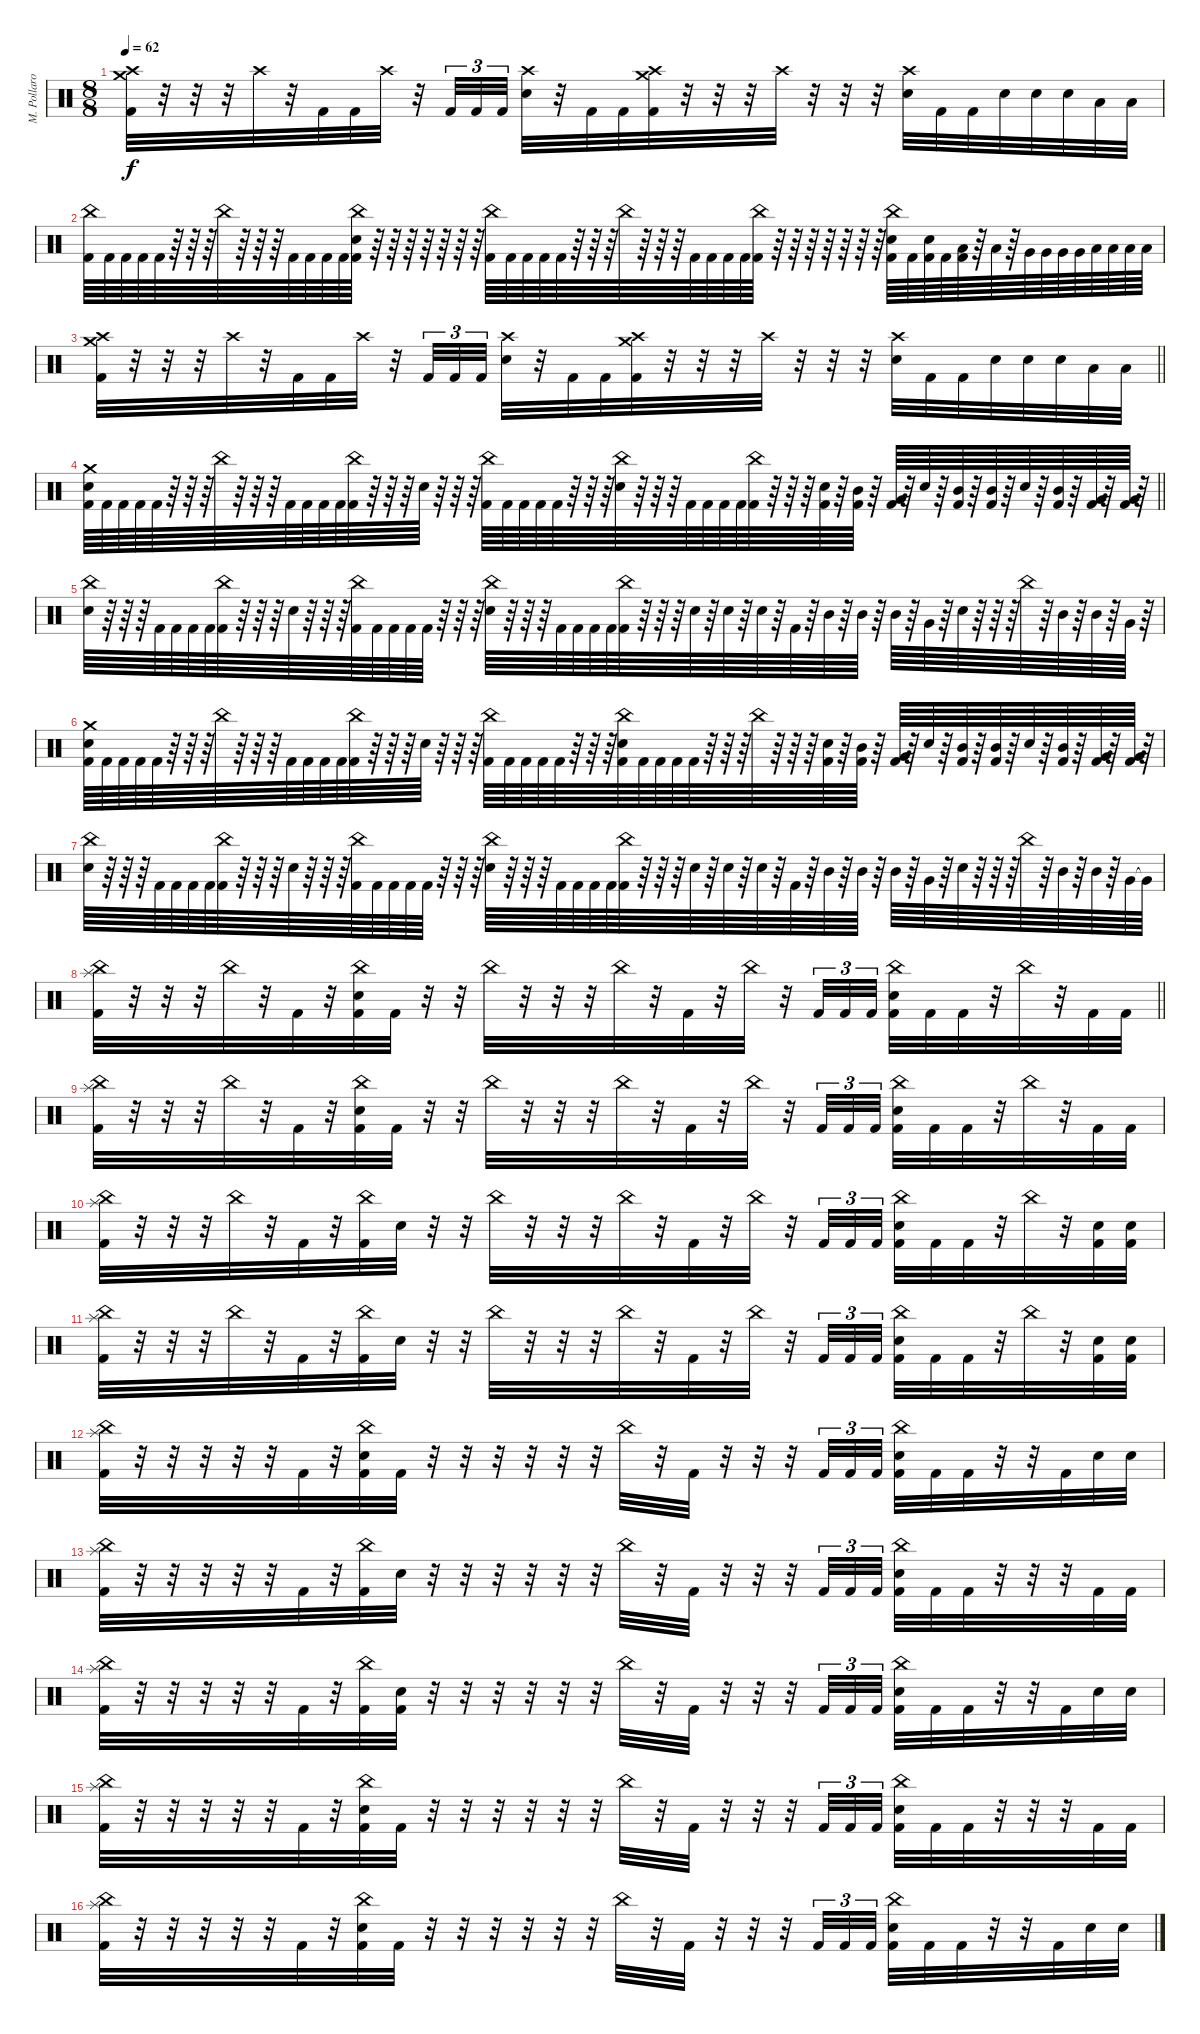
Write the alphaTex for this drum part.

\track ("M. Pollaro" "M. Pollaro") {instrument percussion}
\staff {score}
\articulation defaults
\ts (8 8)
\tempo 62
\clef neutral
\ks aminor
("Crash medium (hit)" "Crash high (hit)" "Kick (hit) 2").32{dy f} r.32 r.32 r.32 "Crash high (hit)".32 r.32 "Kick (hit) 2".32 "Kick (hit) 2".32 "Crash high (hit)".32 r.32 "Kick (hit) 2".32{tu (3 2)} "Kick (hit) 2".32{tu (3 2)} "Kick (hit) 2".32{tu (3 2)} ("Crash high (hit)" "Snare (hit) 2").32 r.32 "Kick (hit) 2".32 "Kick (hit) 2".32 ("Crash high (hit)" "Crash medium (hit)" "Kick (hit) 2").32 r.32 r.32 r.32 "Crash high (hit)".32 r.32 r.32 r.32 ("Crash high (hit)" "Snare (hit) 2").32 "Kick (hit) 2".32 "Kick (hit) 2".32 "Snare (hit) 2".32 "Snare (hit) 2".32 "Snare (hit) 2".32 "Low Tom (hit)".32 "Low Tom (hit)".32 |
("China (hit)" "Kick (hit) 2").64 "Kick (hit) 2".64 "Kick (hit) 2".64 "Kick (hit) 2".64 "Kick (hit) 2".64 r.64 r.64 r.64 "China (hit)".64 r.64 r.64 r.64 "Kick (hit) 2".64 "Kick (hit) 2".64 "Kick (hit) 2".64 "Kick (hit) 2".64 ("China (hit)" "Snare (hit) 2" "Kick (hit) 2").64 r.64 r.64 r.64 r.64 r.64 r.64 r.64 ("China (hit)" "Kick (hit) 2").64 "Kick (hit) 2".64 "Kick (hit) 2".64 "Kick (hit) 2".64 "Kick (hit) 2".64 r.64 r.64 r.64 "China (hit)".64 r.64 r.64 r.64 "Kick (hit) 2".64 "Kick (hit) 2".64 "Kick (hit) 2".64 "Kick (hit) 2".64 ("China (hit)" "Kick (hit) 2").64 r.64 r.64 r.64 r.64 r.64 r.64 r.64 ("China (hit)" "Snare (hit) 2" "Kick (hit) 2").64 "Kick (hit) 2".64 ("Snare (hit) 2" "Kick (hit) 2").64 "Kick (hit) 2".64 ("Low Tom (hit)" "Kick (hit) 2").64 r.64 "Low Tom (hit)".64 r.64 "Very Low Tom (hit)".64 "Very Low Tom (hit)".64 "Very Low Tom (hit)".64 "Very Low Tom (hit)".64 "Low Floor Tom (hit)".64 "Low Floor Tom (hit)".64 "Low Floor Tom (hit)".64 "Low Floor Tom (hit)".64 |
\barLineRight lightlight
("Crash medium (hit)" "Crash high (hit)" "Kick (hit) 2").32 r.32 r.32 r.32 "Crash high (hit)".32 r.32 "Kick (hit) 2".32 "Kick (hit) 2".32 "Crash high (hit)".32 r.32 "Kick (hit) 2".32{tu (3 2)} "Kick (hit) 2".32{tu (3 2)} "Kick (hit) 2".32{tu (3 2)} ("Crash high (hit)" "Snare (hit) 2").32 r.32 "Kick (hit) 2".32 "Kick (hit) 2".32 ("Crash high (hit)" "Crash medium (hit)" "Kick (hit) 2").32 r.32 r.32 r.32 "Crash high (hit)".32 r.32 r.32 r.32 ("Crash high (hit)" "Snare (hit) 2").32 "Kick (hit) 2".32 "Kick (hit) 2".32 "Snare (hit) 2".32 "Snare (hit) 2".32 "Snare (hit) 2".32 "Low Tom (hit)".32 "Low Tom (hit)".32 |
\barLineRight lightlight
("Crash medium (hit)" "Snare (hit) 2" "Kick (hit) 2").64 "Kick (hit) 2".64 "Kick (hit) 2".64 "Kick (hit) 2".64 "Kick (hit) 2".64 r.64 r.64 r.64 "China (hit)".64 r.64 r.64 r.64 "Kick (hit) 2".64 "Kick (hit) 2".64 "Kick (hit) 2".64 "Kick (hit) 2".64 ("China (hit)" "Kick (hit) 2").64 r.64 r.64 r.64 "Snare (hit) 2".64 r.64 r.64 r.64 ("China (hit)" "Kick (hit) 2").64 "Kick (hit) 2".64 "Kick (hit) 2".64 "Kick (hit) 2".64 "Kick (hit) 2".64 r.64 r.64 r.64 ("China (hit)" "Snare (hit) 2").64 r.64 r.64 r.64 "Kick (hit) 2".64 "Kick (hit) 2".64 "Kick (hit) 2".64 "Kick (hit) 2".64 ("China (hit)" "Kick (hit) 2").64 r.64 r.64 r.64 ("Snare (hit) 2" "Kick (hit) 2").64 r.64 ("Mid Tom (hit)" "Kick (hit) 2").64 r.64 ("Very Low Tom (hit)" "Kick (hit) 2").64 r.64 "Snare (hit) 2".64 r.64 ("Mid Tom (hit)" "Kick (hit) 2").64 r.64 ("Mid Tom (hit)" "Kick (hit) 2").64 r.64 "Snare (hit) 2".64 r.64 ("Mid Tom (hit)" "Kick (hit) 2").64 r.64 ("Very Low Tom (hit)" "Kick (hit) 2").64 r.64 ("Very Low Tom (hit)" "Kick (hit) 2").64 r.64 |
("China (hit)" "Snare (hit) 2").64 r.64 r.64 r.64 "Kick (hit) 2".64 "Kick (hit) 2".64 "Kick (hit) 2".64 "Kick (hit) 2".64 ("China (hit)" "Kick (hit) 2").64 r.64 r.64 r.64 "Snare (hit) 2".64 r.64 r.64 r.64 ("China (hit)" "Kick (hit) 2").64 "Kick (hit) 2".64 "Kick (hit) 2".64 "Kick (hit) 2".64 "Kick (hit) 2".64 r.64 r.64 r.64 ("China (hit)" "Snare (hit) 2").64 r.64 r.64 r.64 "Kick (hit) 2".64 "Kick (hit) 2".64 "Kick (hit) 2".64 "Kick (hit) 2".64 ("China (hit)" "Kick (hit) 2").64 r.64 r.64 r.64 "Snare (hit) 2".64 r.64 "Snare (hit) 2".64 r.64 "Snare (hit) 2".64 r.64 "Kick (hit) 2".64 r.64 "Mid Tom (hit)".64 r.64 "Mid Tom (hit)".64 r.64 "Mid Tom (hit)".64 r.64 "Very Low Tom (hit)".64 r.64 "Snare (hit) 2".64 r.64 r.64 r.64 "China (hit)".64 r.64 "Mid Tom (hit)".64 r.64 "Mid Tom (hit)".64 r.64 "Very Low Tom (hit)".64 r.64 |
("Crash medium (hit)" "Snare (hit) 2" "Kick (hit) 2").64 "Kick (hit) 2".64 "Kick (hit) 2".64 "Kick (hit) 2".64 "Kick (hit) 2".64 r.64 r.64 r.64 "China (hit)".64 r.64 r.64 r.64 "Kick (hit) 2".64 "Kick (hit) 2".64 "Kick (hit) 2".64 "Kick (hit) 2".64 ("China (hit)" "Kick (hit) 2").64 r.64 r.64 r.64 "Snare (hit) 2".64 r.64 r.64 r.64 ("China (hit)" "Kick (hit) 2").64 "Kick (hit) 2".64 "Kick (hit) 2".64 "Kick (hit) 2".64 "Kick (hit) 2".64 r.64 r.64 r.64 ("China (hit)" "Snare (hit) 2" "Kick (hit) 2").64 "Kick (hit) 2".64 "Kick (hit) 2".64 "Kick (hit) 2".64 "Kick (hit) 2".64 r.64 r.64 r.64 "China (hit)".64 r.64 r.64 r.64 ("Snare (hit) 2" "Kick (hit) 2").64 r.64 ("Mid Tom (hit)" "Kick (hit) 2").64 r.64 ("Very Low Tom (hit)" "Kick (hit) 2").64 r.64 "Snare (hit) 2".64 r.64 ("Mid Tom (hit)" "Kick (hit) 2").64 r.64 ("Mid Tom (hit)" "Kick (hit) 2").64 r.64 "Snare (hit) 2".64 r.64 ("Mid Tom (hit)" "Kick (hit) 2").64 r.64 ("Very Low Tom (hit)" "Kick (hit) 2").64 r.64 ("Very Low Tom (hit)" "Kick (hit) 2").64 r.64 |
("China (hit)" "Snare (hit) 2").64 r.64 r.64 r.64 "Kick (hit) 2".64 "Kick (hit) 2".64 "Kick (hit) 2".64 "Kick (hit) 2".64 ("China (hit)" "Kick (hit) 2").64 r.64 r.64 r.64 "Snare (hit) 2".64 r.64 r.64 r.64 ("China (hit)" "Kick (hit) 2").64 "Kick (hit) 2".64 "Kick (hit) 2".64 "Kick (hit) 2".64 "Kick (hit) 2".64 r.64 r.64 r.64 ("China (hit)" "Snare (hit) 2").64 r.64 r.64 r.64 "Kick (hit) 2".64 "Kick (hit) 2".64 "Kick (hit) 2".64 "Kick (hit) 2".64 ("China (hit)" "Kick (hit) 2").64 r.64 r.64 r.64 "Snare (hit) 2".64 r.64 "Snare (hit) 2".64 r.64 "Snare (hit) 2".64 r.64 "Kick (hit) 2".64 r.64 "Mid Tom (hit)".64 r.64 "Mid Tom (hit)".64 r.64 "Mid Tom (hit)".64 r.64 "Very Low Tom (hit)".64 r.64 "Snare (hit) 2".64 r.64 r.64 r.64 "China (hit)".64 r.64 "Mid Tom (hit)".64 r.64 "Mid Tom (hit)".64 r.64 "Very Low Tom (hit)".64 "Very Low Tom (hit)"{t}.64 |
\barLineRight lightlight
("Splash (hit)" "China (hit)" "Kick (hit) 2").32 r.32 r.32 r.32 "China (hit)".32 r.32 "Kick (hit) 2".32 r.32 ("China (hit)" "Snare (hit) 2" "Kick (hit) 2").32 "Kick (hit) 2".32 r.32 r.32 "China (hit)".32 r.32 r.32 r.32 "China (hit)".32 r.32 "Kick (hit) 2".32 r.32 "China (hit)".32 r.32 "Kick (hit) 2".32{tu (3 2)} "Kick (hit) 2".32{tu (3 2)} "Kick (hit) 2".32{tu (3 2)} ("China (hit)" "Snare (hit) 2" "Kick (hit) 2").32 "Kick (hit) 2".32 "Kick (hit) 2".32 r.32 "China (hit)".32 r.32 "Kick (hit) 2".32 "Kick (hit) 2".32 |
("Splash (hit)" "China (hit)" "Kick (hit) 2").32 r.32 r.32 r.32 "China (hit)".32 r.32 "Kick (hit) 2".32 r.32 ("China (hit)" "Snare (hit) 2" "Kick (hit) 2").32 "Kick (hit) 2".32 r.32 r.32 "China (hit)".32 r.32 r.32 r.32 "China (hit)".32 r.32 "Kick (hit) 2".32 r.32 "China (hit)".32 r.32 "Kick (hit) 2".32{tu (3 2)} "Kick (hit) 2".32{tu (3 2)} "Kick (hit) 2".32{tu (3 2)} ("China (hit)" "Snare (hit) 2" "Kick (hit) 2").32 "Kick (hit) 2".32 "Kick (hit) 2".32 r.32 "China (hit)".32 r.32 "Kick (hit) 2".32 "Kick (hit) 2".32 |
("Splash (hit)" "China (hit)" "Kick (hit) 2").32 r.32 r.32 r.32 "China (hit)".32 r.32 "Kick (hit) 2".32 r.32 ("China (hit)" "Kick (hit) 2").32 "Snare (hit) 2".32 r.32 r.32 "China (hit)".32 r.32 r.32 r.32 "China (hit)".32 r.32 "Kick (hit) 2".32 r.32 "China (hit)".32 r.32 "Kick (hit) 2".32{tu (3 2)} "Kick (hit) 2".32{tu (3 2)} "Kick (hit) 2".32{tu (3 2)} ("China (hit)" "Snare (hit) 2" "Kick (hit) 2").32 "Kick (hit) 2".32 "Kick (hit) 2".32 r.32 "China (hit)".32 r.32 ("Snare (hit) 2" "Kick (hit) 2").32 ("Snare (hit) 2" "Kick (hit) 2").32 |
("Splash (hit)" "China (hit)" "Kick (hit) 2").32 r.32 r.32 r.32 "China (hit)".32 r.32 "Kick (hit) 2".32 r.32 ("China (hit)" "Kick (hit) 2").32 "Snare (hit) 2".32 r.32 r.32 "China (hit)".32 r.32 r.32 r.32 "China (hit)".32 r.32 "Kick (hit) 2".32 r.32 "China (hit)".32 r.32 "Kick (hit) 2".32{tu (3 2)} "Kick (hit) 2".32{tu (3 2)} "Kick (hit) 2".32{tu (3 2)} ("China (hit)" "Snare (hit) 2" "Kick (hit) 2").32 "Kick (hit) 2".32 "Kick (hit) 2".32 r.32 "China (hit)".32 r.32 ("Snare (hit) 2" "Kick (hit) 2").32 ("Snare (hit) 2" "Kick (hit) 2").32 |
("Splash (hit)" "China (hit)" "Kick (hit) 2").32 r.32 r.32 r.32 r.32 r.32 "Kick (hit) 2".32 r.32 ("China (hit)" "Snare (hit) 2" "Kick (hit) 2").32 "Kick (hit) 2".32 r.32 r.32 r.32 r.32 r.32 r.32 "China (hit)".32 r.32 "Kick (hit) 2".32 r.32 r.32 r.32 "Kick (hit) 2".32{tu (3 2)} "Kick (hit) 2".32{tu (3 2)} "Kick (hit) 2".32{tu (3 2)} ("China (hit)" "Snare (hit) 2" "Kick (hit) 2").32 "Kick (hit) 2".32 "Kick (hit) 2".32 r.32 r.32 "Kick (hit) 2".32 "Snare (hit) 2".32 "Snare (hit) 2".32 |
("Splash (hit)" "China (hit)" "Kick (hit) 2").32 r.32 r.32 r.32 r.32 r.32 "Kick (hit) 2".32 r.32 ("China (hit)" "Kick (hit) 2").32 "Snare (hit) 2".32 r.32 r.32 r.32 r.32 r.32 r.32 "China (hit)".32 r.32 "Kick (hit) 2".32 r.32 r.32 r.32 "Kick (hit) 2".32{tu (3 2)} "Kick (hit) 2".32{tu (3 2)} "Kick (hit) 2".32{tu (3 2)} ("China (hit)" "Snare (hit) 2" "Kick (hit) 2").32 "Kick (hit) 2".32 "Kick (hit) 2".32 r.32 r.32 r.32 "Kick (hit) 2".32 "Kick (hit) 2".32 |
("Splash (hit)" "China (hit)" "Kick (hit) 2").32 r.32 r.32 r.32 r.32 r.32 "Kick (hit) 2".32 r.32 ("China (hit)" "Kick (hit) 2").32 ("Snare (hit) 2" "Kick (hit) 2").32 r.32 r.32 r.32 r.32 r.32 r.32 "China (hit)".32 r.32 "Kick (hit) 2".32 r.32 r.32 r.32 "Kick (hit) 2".32{tu (3 2)} "Kick (hit) 2".32{tu (3 2)} "Kick (hit) 2".32{tu (3 2)} ("China (hit)" "Snare (hit) 2" "Kick (hit) 2").32 "Kick (hit) 2".32 "Kick (hit) 2".32 r.32 r.32 "Kick (hit) 2".32 "Snare (hit) 2".32 "Snare (hit) 2".32 |
("Splash (hit)" "China (hit)" "Kick (hit) 2").32 r.32 r.32 r.32 r.32 r.32 "Kick (hit) 2".32 r.32 ("China (hit)" "Snare (hit) 2" "Kick (hit) 2").32 "Kick (hit) 2".32 r.32 r.32 r.32 r.32 r.32 r.32 "China (hit)".32 r.32 "Kick (hit) 2".32 r.32 r.32 r.32 "Kick (hit) 2".32{tu (3 2)} "Kick (hit) 2".32{tu (3 2)} "Kick (hit) 2".32{tu (3 2)} ("China (hit)" "Snare (hit) 2" "Kick (hit) 2").32 "Kick (hit) 2".32 "Kick (hit) 2".32 r.32 r.32 r.32 "Kick (hit) 2".32 "Kick (hit) 2".32 |
("Splash (hit)" "China (hit)" "Kick (hit) 2").32 r.32 r.32 r.32 r.32 r.32 "Kick (hit) 2".32 r.32 ("China (hit)" "Snare (hit) 2" "Kick (hit) 2").32 "Kick (hit) 2".32 r.32 r.32 r.32 r.32 r.32 r.32 "China (hit)".32 r.32 "Kick (hit) 2".32 r.32 r.32 r.32 "Kick (hit) 2".32{tu (3 2)} "Kick (hit) 2".32{tu (3 2)} "Kick (hit) 2".32{tu (3 2)} ("China (hit)" "Snare (hit) 2" "Kick (hit) 2").32 "Kick (hit) 2".32 "Kick (hit) 2".32 r.32 r.32 "Kick (hit) 2".32 "Snare (hit) 2".32 "Snare (hit) 2".32
